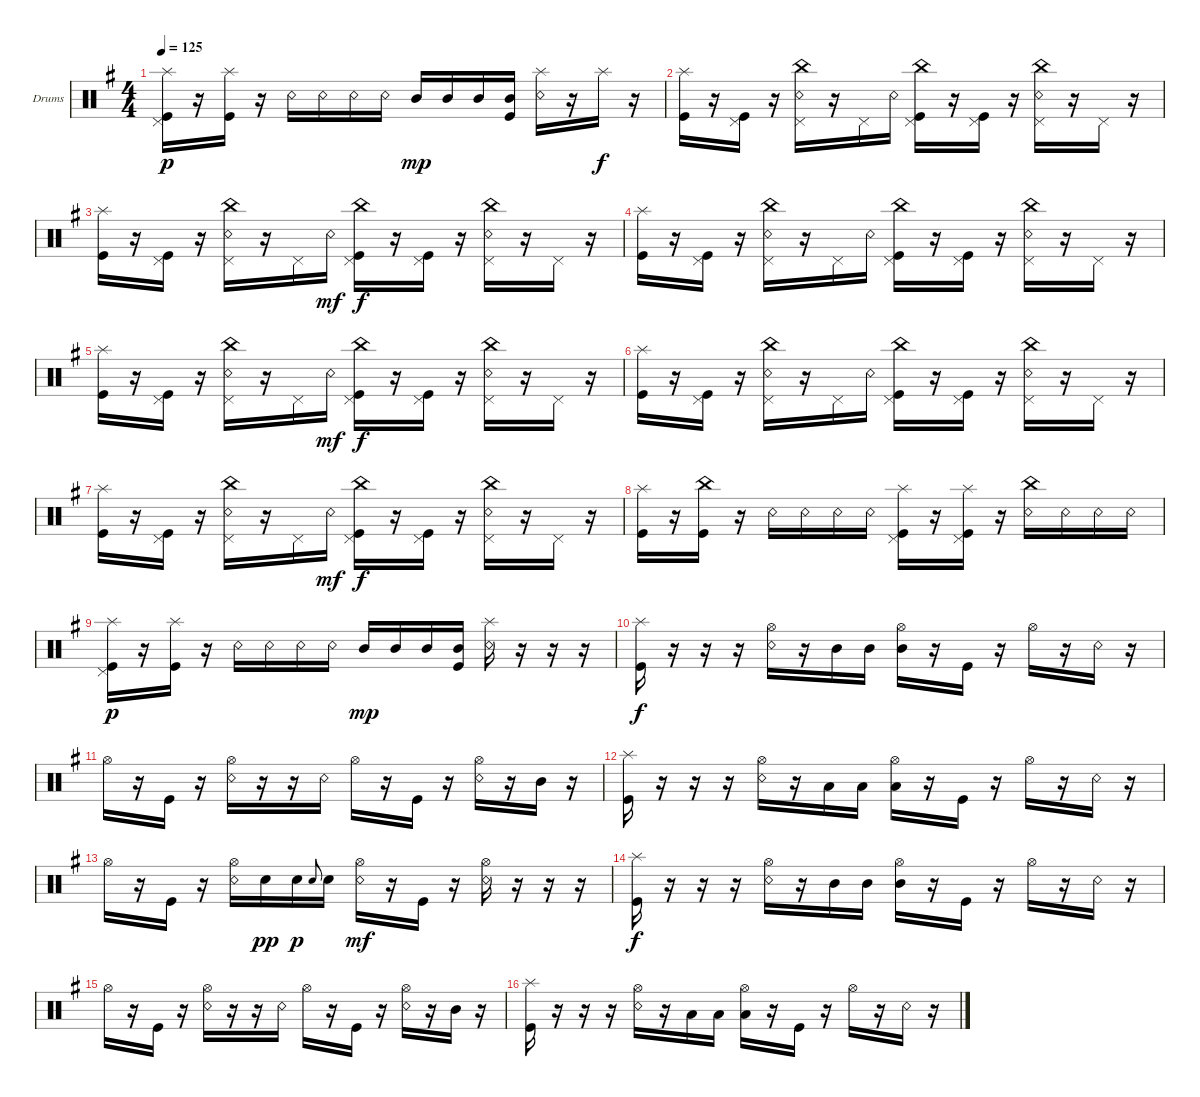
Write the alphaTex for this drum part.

\bracketExtendMode groupsimilarinstruments
\firstSystemTrackNameOrientation horizontal
\otherSystemsTrackNameOrientation horizontal
\track ("Drumkit" "Drums") {instrument percussion}
\staff {score}
\articulation defaults
\ts (4 4)
\tempo 125
\clef neutral
\ks g
("Pedal Hi-Hat (hit)" "Kick (hit)" "Splash (hit)").16{dy p} r.16 ("Kick (hit)" "Splash (hit)").16 r.16 "Snare (rim shot)".16 "Snare (rim shot)".16 "Snare (rim shot)".16 "Snare (rim shot)".16 "Mid Tom (hit)".16{dy mp} "Mid Tom (hit)".16 "Mid Tom (hit)".16 ("Mid Tom (hit)" "Kick (hit)").16 ("Snare (rim shot)" "Splash (hit)").16 r.16 "Splash (hit)".16{dy f} r.16 |
("Kick (hit)" "Splash (hit)").16 r.16 ("Pedal Hi-Hat (hit)" "Kick (hit)").16 r.16 ("Pedal Hi-Hat (hit)" "Snare (rim shot)" "China (hit)").16 r.16 "Pedal Hi-Hat (hit)".16 "Snare (rim shot)".16 ("Pedal Hi-Hat (hit)" "China (hit)" "Kick (hit)").16 r.16 ("Pedal Hi-Hat (hit)" "Kick (hit)").16 r.16 ("Pedal Hi-Hat (hit)" "China (hit)" "Snare (rim shot)").16 r.16 "Pedal Hi-Hat (hit)".16 r.16 |
("Kick (hit)" "Splash (hit)").16 r.16 ("Pedal Hi-Hat (hit)" "Kick (hit)").16 r.16 ("Pedal Hi-Hat (hit)" "Snare (rim shot)" "China (hit)").16 r.16 "Pedal Hi-Hat (hit)".16 "Snare (rim shot)".16{dy mf} ("Pedal Hi-Hat (hit)" "China (hit)" "Kick (hit)").16{dy f} r.16 ("Pedal Hi-Hat (hit)" "Kick (hit)").16 r.16 ("Pedal Hi-Hat (hit)" "China (hit)" "Snare (rim shot)").16 r.16 "Pedal Hi-Hat (hit)".16 r.16 |
("Kick (hit)" "Splash (hit)").16 r.16 ("Pedal Hi-Hat (hit)" "Kick (hit)").16 r.16 ("Pedal Hi-Hat (hit)" "Snare (rim shot)" "China (hit)").16 r.16 "Pedal Hi-Hat (hit)".16 "Snare (rim shot)".16 ("Pedal Hi-Hat (hit)" "China (hit)" "Kick (hit)").16 r.16 ("Pedal Hi-Hat (hit)" "Kick (hit)").16 r.16 ("Pedal Hi-Hat (hit)" "China (hit)" "Snare (rim shot)").16 r.16 "Pedal Hi-Hat (hit)".16 r.16 |
("Kick (hit)" "Splash (hit)").16 r.16 ("Pedal Hi-Hat (hit)" "Kick (hit)").16 r.16 ("Pedal Hi-Hat (hit)" "Snare (rim shot)" "China (hit)").16 r.16 "Pedal Hi-Hat (hit)".16 "Snare (rim shot)".16{dy mf} ("Pedal Hi-Hat (hit)" "China (hit)" "Kick (hit)").16{dy f} r.16 ("Pedal Hi-Hat (hit)" "Kick (hit)").16 r.16 ("Pedal Hi-Hat (hit)" "China (hit)" "Snare (rim shot)").16 r.16 "Pedal Hi-Hat (hit)".16 r.16 |
("Kick (hit)" "Splash (hit)").16 r.16 ("Pedal Hi-Hat (hit)" "Kick (hit)").16 r.16 ("Pedal Hi-Hat (hit)" "Snare (rim shot)" "China (hit)").16 r.16 "Pedal Hi-Hat (hit)".16 "Snare (rim shot)".16 ("Pedal Hi-Hat (hit)" "China (hit)" "Kick (hit)").16 r.16 ("Pedal Hi-Hat (hit)" "Kick (hit)").16 r.16 ("Pedal Hi-Hat (hit)" "China (hit)" "Snare (rim shot)").16 r.16 "Pedal Hi-Hat (hit)".16 r.16 |
("Kick (hit)" "Splash (hit)").16 r.16 ("Pedal Hi-Hat (hit)" "Kick (hit)").16 r.16 ("Pedal Hi-Hat (hit)" "Snare (rim shot)" "China (hit)").16 r.16 "Pedal Hi-Hat (hit)".16 "Snare (rim shot)".16{dy mf} ("Pedal Hi-Hat (hit)" "China (hit)" "Kick (hit)").16{dy f} r.16 ("Pedal Hi-Hat (hit)" "Kick (hit)").16 r.16 ("Pedal Hi-Hat (hit)" "China (hit)" "Snare (rim shot)").16 r.16 "Pedal Hi-Hat (hit)".16 r.16 |
("Kick (hit)" "Splash (hit)").16 r.16 ("Kick (hit)" "China (hit)").16 r.16 "Snare (rim shot)".16 "Snare (rim shot)".16 "Snare (rim shot)".16 "Snare (rim shot)".16 ("Pedal Hi-Hat (hit)" "Kick (hit)" "Splash (hit)").16 r.16 ("Pedal Hi-Hat (hit)" "Kick (hit)" "Splash (hit)").16 r.16 ("China (hit)" "Snare (rim shot)").16 "Snare (rim shot)".16 "Snare (rim shot)".16 "Snare (rim shot)".16 |
("Pedal Hi-Hat (hit)" "Kick (hit)" "Splash (hit)").16{dy p} r.16 ("Kick (hit)" "Splash (hit)").16 r.16 "Snare (rim shot)".16 "Snare (rim shot)".16 "Snare (rim shot)".16 "Snare (rim shot)".16 "Mid Tom (hit)".16{dy mp} "Mid Tom (hit)".16 "Mid Tom (hit)".16 ("Mid Tom (hit)" "Kick (hit)").16 ("Snare (rim shot)" "Splash (hit)").16 r.16 r.16 r.16 |
("Kick (hit)" "Splash (hit)").16{dy f} r.16 r.16 r.16 ("Snare (rim shot)" "Hi-Hat (open)").16 r.16 "Mid Tom (hit)".16 "Mid Tom (hit)".16 ("Mid Tom (hit)" "Hi-Hat (open)").16 r.16 "Kick (hit)".16 r.16 "Hi-Hat (open)".16 r.16 "Snare (rim shot)".16 r.16 |
"Hi-Hat (open)".16 r.16 "Kick (hit)".16 r.16 ("Snare (rim shot)" "Hi-Hat (open)").16 r.16 r.16 "Snare (rim shot)".16 "Hi-Hat (open)".16 r.16 "Kick (hit)".16 r.16 ("Snare (rim shot)" "Hi-Hat (open)").16 r.16 "Mid Tom (hit)".16 r.16 |
("Kick (hit)" "Splash (hit)").16 r.16 r.16 r.16 ("Snare (rim shot)" "Hi-Hat (open)").16 r.16 "Low Tom (hit)".16 "Low Tom (hit)".16 ("Low Tom (hit)" "Hi-Hat (open)").16 r.16 "Kick (hit)".16 r.16 "Hi-Hat (open)".16 r.16 "Snare (rim shot)".16 r.16 |
"Hi-Hat (open)".16 r.16 "Kick (hit)".16 r.16 ("Snare (rim shot)" "Hi-Hat (open)").16 "Snare (hit) 2".16{dy pp} "Snare (hit) 2".16{dy p} "Snare (hit) 2".8{gr onbeat} "Snare (hit) 2".16 ("Snare (rim shot)" "Hi-Hat (open)").16{dy mf} r.16 "Kick (hit)".16 r.16 ("Snare (rim shot)" "Hi-Hat (open)").16 r.16 r.16 r.16 |
("Kick (hit)" "Splash (hit)").16{dy f} r.16 r.16 r.16 ("Snare (rim shot)" "Hi-Hat (open)").16 r.16 "Mid Tom (hit)".16 "Mid Tom (hit)".16 ("Mid Tom (hit)" "Hi-Hat (open)").16 r.16 "Kick (hit)".16 r.16 "Hi-Hat (open)".16 r.16 "Snare (rim shot)".16 r.16 |
"Hi-Hat (open)".16 r.16 "Kick (hit)".16 r.16 ("Snare (rim shot)" "Hi-Hat (open)").16 r.16 r.16 "Snare (rim shot)".16 "Hi-Hat (open)".16 r.16 "Kick (hit)".16 r.16 ("Snare (rim shot)" "Hi-Hat (open)").16 r.16 "Mid Tom (hit)".16 r.16 |
("Kick (hit)" "Splash (hit)").16 r.16 r.16 r.16 ("Snare (rim shot)" "Hi-Hat (open)").16 r.16 "Low Tom (hit)".16 "Low Tom (hit)".16 ("Low Tom (hit)" "Hi-Hat (open)").16 r.16 "Kick (hit)".16 r.16 "Hi-Hat (open)".16 r.16 "Snare (rim shot)".16 r.16
